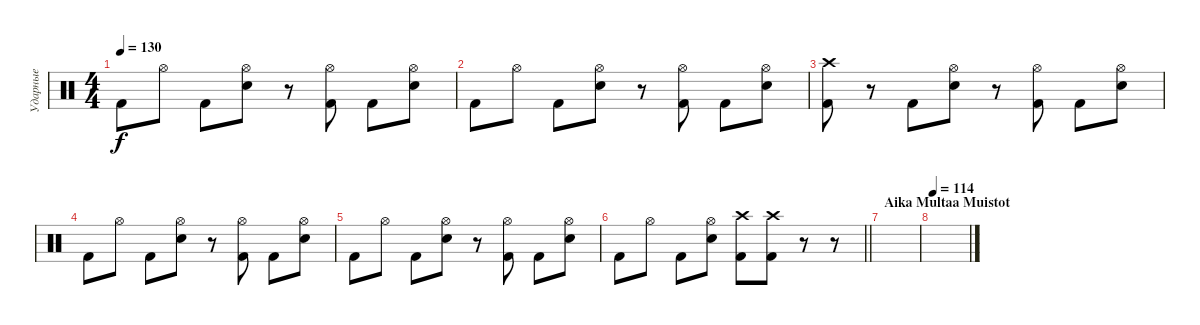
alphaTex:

\track ("Ударные" "Ударные") {instrument percussion}
\staff {score}
\articulation defaults
\ts (4 4)
\tempo 130
\clef neutral
\ks c "Kick (hit) 2".8{dy f} "Hi-Hat (open)".8 "Kick (hit) 2".8
("Hi-Hat (open)" "Snare (hit) 2").8 r.8 ("Hi-Hat (open)" "Kick (hit) 2").8 "Kick (hit) 2".8 ("Hi-Hat (open)" "Snare (hit) 2").8 |
"Kick (hit) 2".8 "Hi-Hat (open)".8 "Kick (hit) 2".8 ("Hi-Hat (open)" "Snare (hit) 2").8 r.8 ("Hi-Hat (open)" "Kick (hit) 2").8 "Kick (hit) 2".8 ("Hi-Hat (open)" "Snare (hit) 2").8 |
("Crash high (hit)" "Kick (hit) 2").8 r.8 "Kick (hit) 2".8 ("Hi-Hat (open)" "Snare (hit) 2").8 r.8 ("Hi-Hat (open)" "Kick (hit) 2").8 "Kick (hit) 2".8 ("Hi-Hat (open)" "Snare (hit) 2").8 |
"Kick (hit) 2".8 "Hi-Hat (open)".8 "Kick (hit) 2".8 ("Hi-Hat (open)" "Snare (hit) 2").8 r.8 ("Hi-Hat (open)" "Kick (hit) 2").8 "Kick (hit) 2".8 ("Hi-Hat (open)" "Snare (hit) 2").8 |
"Kick (hit) 2".8 "Hi-Hat (open)".8 "Kick (hit) 2".8 ("Hi-Hat (open)" "Snare (hit) 2").8 r.8 ("Hi-Hat (open)" "Kick (hit) 2").8 "Kick (hit) 2".8 ("Hi-Hat (open)" "Snare (hit) 2").8 |
\barLineRight lightlight "Kick (hit) 2".8 "Hi-Hat (open)".8 "Kick (hit) 2".8
("Hi-Hat (open)" "Snare (hit) 2").8 ("Crash high (hit)" "Kick (hit) 2").8 ("Crash high (hit)" "Kick (hit) 2").8 r.8 r.8 |
\section ("" "Aika Multaa Muistot")
|
\tempo 114
